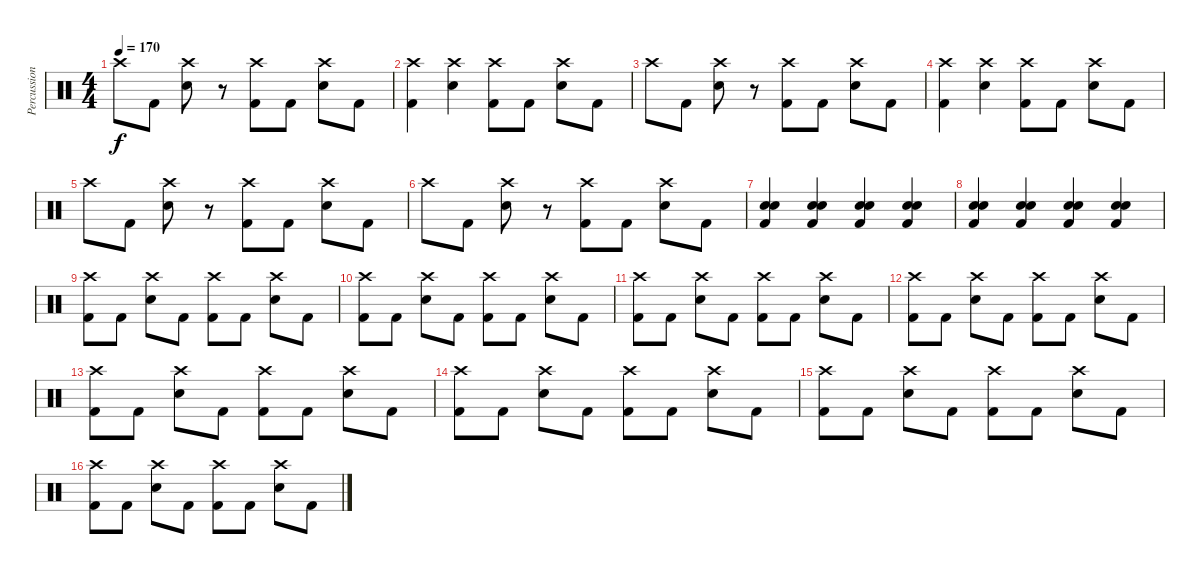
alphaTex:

\track ("Percussion" "Percussion") {instrument percussion}
\staff {score}
\articulation defaults
\ts (4 4)
\tempo 170
\clef neutral
\ks c "Crash high (hit)".8{dy f} "Kick (hit) 2".8
("Crash high (hit)" "Snare (hit) 2").8 r.8 ("Crash high (hit)" "Kick (hit) 2").8 "Kick (hit) 2".8 ("Crash high (hit)" "Snare (hit) 2").8 "Kick (hit) 2".8 |
("Crash high (hit)" "Kick (hit) 2").4 ("Crash high (hit)" "Snare (hit) 2").4 ("Crash high (hit)" "Kick (hit) 2").8 "Kick (hit) 2".8 ("Crash high (hit)" "Snare (hit) 2").8 "Kick (hit) 2".8 |
"Crash high (hit)".8 "Kick (hit) 2".8 ("Crash high (hit)" "Snare (hit) 2").8 r.8 ("Crash high (hit)" "Kick (hit) 2").8 "Kick (hit) 2".8 ("Crash high (hit)" "Snare (hit) 2").8 "Kick (hit) 2".8 |
("Crash high (hit)" "Kick (hit) 2").4 ("Crash high (hit)" "Snare (hit) 2").4 ("Crash high (hit)" "Kick (hit) 2").8 "Kick (hit) 2".8 ("Crash high (hit)" "Snare (hit) 2").8 "Kick (hit) 2".8 |
"Crash high (hit)".8 "Kick (hit) 2".8 ("Crash high (hit)" "Snare (hit) 2").8 r.8 ("Crash high (hit)" "Kick (hit) 2").8 "Kick (hit) 2".8 ("Crash high (hit)" "Snare (hit) 2").8 "Kick (hit) 2".8 |
"Crash high (hit)".8 "Kick (hit) 2".8 ("Crash high (hit)" "Snare (hit) 2").8 r.8 ("Crash high (hit)" "Kick (hit) 2").8 "Kick (hit) 2".8 ("Crash high (hit)" "Snare (hit) 2").8 "Kick (hit) 2".8 |
("Snare (hit) 2" "Snare (hit) 2" "Kick (hit) 2").4 ("Snare (hit) 2" "Snare (hit) 2" "Kick (hit) 2").4 ("Snare (hit) 2" "Snare (hit) 2" "Kick (hit) 2").4 ("Snare (hit) 2" "Snare (hit) 2" "Kick (hit) 2").4 |
("Snare (hit) 2" "Snare (hit) 2" "Kick (hit) 2").4 ("Snare (hit) 2" "Snare (hit) 2" "Kick (hit) 2").4 ("Snare (hit) 2" "Snare (hit) 2" "Kick (hit) 2").4 ("Snare (hit) 2" "Snare (hit) 2" "Kick (hit) 2").4 |
("Crash high (hit)" "Kick (hit) 2").8 "Kick (hit) 2".8 ("Crash high (hit)" "Snare (hit) 2").8 "Kick (hit) 2".8 ("Crash high (hit)" "Kick (hit) 2").8 "Kick (hit) 2".8 ("Crash high (hit)" "Snare (hit) 2").8 "Kick (hit) 2".8 |
("Crash high (hit)" "Kick (hit) 2").8 "Kick (hit) 2".8 ("Crash high (hit)" "Snare (hit) 2").8 "Kick (hit) 2".8 ("Crash high (hit)" "Kick (hit) 2").8 "Kick (hit) 2".8 ("Crash high (hit)" "Snare (hit) 2").8 "Kick (hit) 2".8 |
("Crash high (hit)" "Kick (hit) 2").8 "Kick (hit) 2".8 ("Crash high (hit)" "Snare (hit) 2").8 "Kick (hit) 2".8 ("Crash high (hit)" "Kick (hit) 2").8 "Kick (hit) 2".8 ("Crash high (hit)" "Snare (hit) 2").8 "Kick (hit) 2".8 |
("Crash high (hit)" "Kick (hit) 2").8 "Kick (hit) 2".8 ("Crash high (hit)" "Snare (hit) 2").8 "Kick (hit) 2".8 ("Crash high (hit)" "Kick (hit) 2").8 "Kick (hit) 2".8 ("Crash high (hit)" "Snare (hit) 2").8 "Kick (hit) 2".8 |
("Crash high (hit)" "Kick (hit) 2").8 "Kick (hit) 2".8 ("Crash high (hit)" "Snare (hit) 2").8 "Kick (hit) 2".8 ("Crash high (hit)" "Kick (hit) 2").8 "Kick (hit) 2".8 ("Crash high (hit)" "Snare (hit) 2").8 "Kick (hit) 2".8 |
("Crash high (hit)" "Kick (hit) 2").8 "Kick (hit) 2".8 ("Crash high (hit)" "Snare (hit) 2").8 "Kick (hit) 2".8 ("Crash high (hit)" "Kick (hit) 2").8 "Kick (hit) 2".8 ("Crash high (hit)" "Snare (hit) 2").8 "Kick (hit) 2".8 |
("Crash high (hit)" "Kick (hit) 2").8 "Kick (hit) 2".8 ("Crash high (hit)" "Snare (hit) 2").8 "Kick (hit) 2".8 ("Crash high (hit)" "Kick (hit) 2").8 "Kick (hit) 2".8 ("Crash high (hit)" "Snare (hit) 2").8 "Kick (hit) 2".8 |
("Crash high (hit)" "Kick (hit) 2").8 "Kick (hit) 2".8 ("Crash high (hit)" "Snare (hit) 2").8 "Kick (hit) 2".8 ("Crash high (hit)" "Kick (hit) 2").8 "Kick (hit) 2".8 ("Crash high (hit)" "Snare (hit) 2").8 "Kick (hit) 2".8
